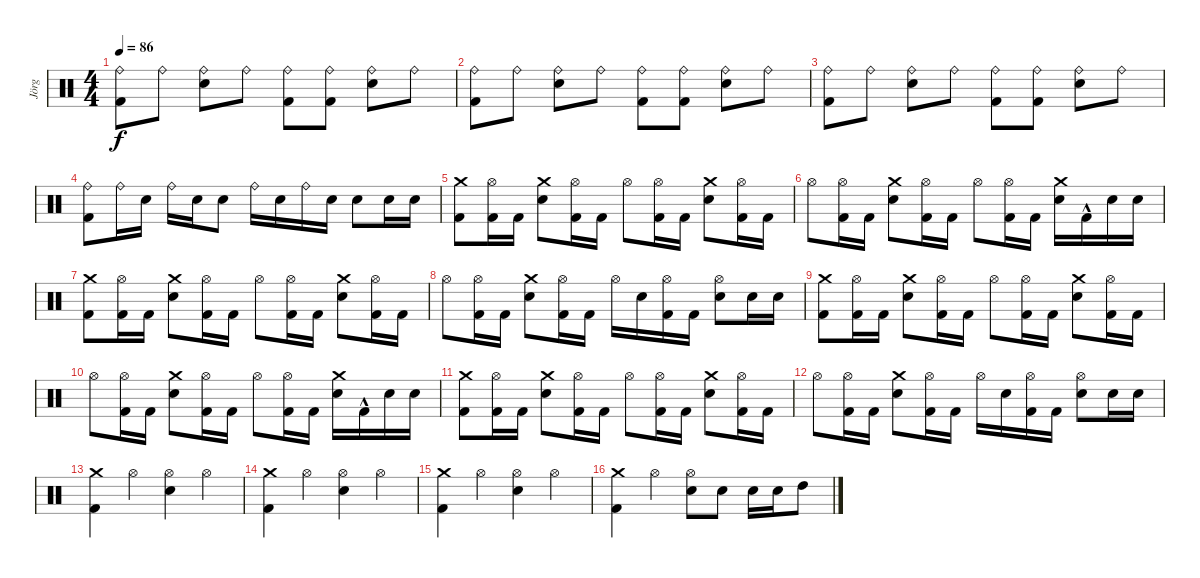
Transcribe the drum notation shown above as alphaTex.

\track ("Jörg" "Jörg") {instrument percussion}
\staff {score}
\articulation defaults
\ts (4 4)
\tempo 86
\clef neutral
\ks c
("Kick (hit) 2" "Ride (bell)").8{dy f} "Ride (bell)".8 ("Snare (hit) 2" "Ride (bell)").8 "Ride (bell)".8 ("Kick (hit) 2" "Ride (bell)").8 ("Kick (hit) 2" "Ride (bell)").8 ("Snare (hit) 2" "Ride (bell)").8 "Ride (bell)".8 |
("Kick (hit) 2" "Ride (bell)").8 "Ride (bell)".8 ("Snare (hit) 2" "Ride (bell)").8 "Ride (bell)".8 ("Kick (hit) 2" "Ride (bell)").8 ("Kick (hit) 2" "Ride (bell)").8 ("Snare (hit) 2" "Ride (bell)").8 "Ride (bell)".8 |
("Kick (hit) 2" "Ride (bell)").8 "Ride (bell)".8 ("Snare (hit) 2" "Ride (bell)").8 "Ride (bell)".8 ("Kick (hit) 2" "Ride (bell)").8 ("Kick (hit) 2" "Ride (bell)").8 ("Snare (hit) 2" "Ride (bell)").8 "Ride (bell)".8 |
("Kick (hit) 2" "Ride (bell)").8 "Ride (bell)".16 "Snare (hit) 2".16 "Ride (bell)".16 "Snare (hit) 2".16 "Snare (hit) 2".8 "Ride (bell)".16 "Snare (hit) 2".16 "Ride (bell)".16 "Snare (hit) 2".16 "Snare (hit) 2".8 "Snare (hit) 2".16 "Snare (hit) 2".16 |
("Kick (hit) 2" "Crash medium (hit)").8 ("Kick (hit) 2" "Hi-Hat (open)").16 "Kick (hit) 2".16 ("Snare (hit) 2" "Crash medium (hit)").8 ("Kick (hit) 2" "Hi-Hat (open)").16 "Kick (hit) 2".16 "Hi-Hat (open)".8 ("Kick (hit) 2" "Hi-Hat (open)").16 "Kick (hit) 2".16 ("Snare (hit) 2" "Crash medium (hit)").8 ("Kick (hit) 2" "Hi-Hat (open)").16 "Kick (hit) 2".16 |
"Hi-Hat (open)".8 ("Kick (hit) 2" "Hi-Hat (open)").16 "Kick (hit) 2".16 ("Snare (hit) 2" "Crash medium (hit)").8 ("Kick (hit) 2" "Hi-Hat (open)").16 "Kick (hit) 2".16 "Hi-Hat (open)".8 ("Kick (hit) 2" "Hi-Hat (open)").16 "Kick (hit) 2".16 ("Snare (hit) 2" "Crash medium (hit)").16 "Kick (hit) 2"{hac}.16 "Snare (hit) 2".16 "Snare (hit) 2".16 |
("Kick (hit) 2" "Crash medium (hit)").8 ("Kick (hit) 2" "Hi-Hat (open)").16 "Kick (hit) 2".16 ("Snare (hit) 2" "Crash medium (hit)").8 ("Kick (hit) 2" "Hi-Hat (open)").16 "Kick (hit) 2".16 "Hi-Hat (open)".8 ("Kick (hit) 2" "Hi-Hat (open)").16 "Kick (hit) 2".16 ("Snare (hit) 2" "Crash medium (hit)").8 ("Kick (hit) 2" "Hi-Hat (open)").16 "Kick (hit) 2".16 |
"Hi-Hat (open)".8 ("Kick (hit) 2" "Hi-Hat (open)").16 "Kick (hit) 2".16 ("Snare (hit) 2" "Crash medium (hit)").8 ("Kick (hit) 2" "Hi-Hat (open)").16 "Kick (hit) 2".16 "Hi-Hat (open)".16 "Snare (hit) 2".16 ("Kick (hit) 2" "Hi-Hat (open)").16 "Kick (hit) 2".16 ("Snare (hit) 2" "Hi-Hat (open)").8 "Snare (hit) 2".16 "Snare (hit) 2".16 |
("Kick (hit) 2" "Crash medium (hit)").8 ("Kick (hit) 2" "Hi-Hat (open)").16 "Kick (hit) 2".16 ("Snare (hit) 2" "Crash medium (hit)").8 ("Kick (hit) 2" "Hi-Hat (open)").16 "Kick (hit) 2".16 "Hi-Hat (open)".8 ("Kick (hit) 2" "Hi-Hat (open)").16 "Kick (hit) 2".16 ("Snare (hit) 2" "Crash medium (hit)").8 ("Kick (hit) 2" "Hi-Hat (open)").16 "Kick (hit) 2".16 |
"Hi-Hat (open)".8 ("Kick (hit) 2" "Hi-Hat (open)").16 "Kick (hit) 2".16 ("Snare (hit) 2" "Crash medium (hit)").8 ("Kick (hit) 2" "Hi-Hat (open)").16 "Kick (hit) 2".16 "Hi-Hat (open)".8 ("Kick (hit) 2" "Hi-Hat (open)").16 "Kick (hit) 2".16 ("Snare (hit) 2" "Crash medium (hit)").16 "Kick (hit) 2"{hac}.16 "Snare (hit) 2".16 "Snare (hit) 2".16 |
("Kick (hit) 2" "Crash medium (hit)").8 ("Kick (hit) 2" "Hi-Hat (open)").16 "Kick (hit) 2".16 ("Snare (hit) 2" "Crash medium (hit)").8 ("Kick (hit) 2" "Hi-Hat (open)").16 "Kick (hit) 2".16 "Hi-Hat (open)".8 ("Kick (hit) 2" "Hi-Hat (open)").16 "Kick (hit) 2".16 ("Snare (hit) 2" "Crash medium (hit)").8 ("Kick (hit) 2" "Hi-Hat (open)").16 "Kick (hit) 2".16 |
"Hi-Hat (open)".8 ("Kick (hit) 2" "Hi-Hat (open)").16 "Kick (hit) 2".16 ("Snare (hit) 2" "Crash medium (hit)").8 ("Kick (hit) 2" "Hi-Hat (open)").16 "Kick (hit) 2".16 "Hi-Hat (open)".16 "Snare (hit) 2".16 ("Kick (hit) 2" "Hi-Hat (open)").16 "Kick (hit) 2".16 ("Snare (hit) 2" "Hi-Hat (open)").8 "Snare (hit) 2".16 "Snare (hit) 2".16 |
("Kick (hit) 2" "Crash medium (hit)").4 "Hi-Hat (open)".4 ("Snare (hit) 2" "Hi-Hat (open)").4 "Hi-Hat (open)".4 |
("Kick (hit) 2" "Crash medium (hit)").4 "Hi-Hat (open)".4 ("Snare (hit) 2" "Hi-Hat (open)").4 "Hi-Hat (open)".4 |
("Kick (hit) 2" "Crash medium (hit)").4 "Hi-Hat (open)".4 ("Snare (hit) 2" "Hi-Hat (open)").4 "Hi-Hat (open)".4 |
("Kick (hit) 2" "Crash medium (hit)").4 "Hi-Hat (open)".4 ("Hi-Hat (open)" "Snare (hit) 2").8 "Snare (hit) 2".8 "Snare (hit) 2".16 "Snare (hit) 2".16 "High Tom (hit)".8
